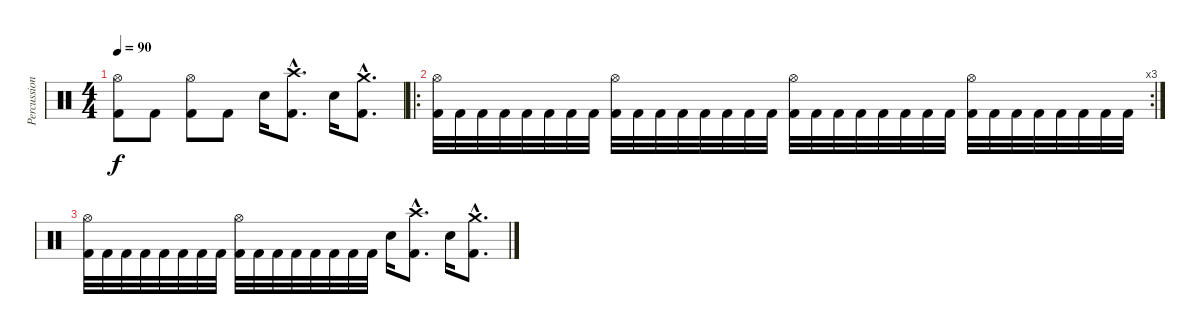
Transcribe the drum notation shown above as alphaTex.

\track ("Percussion" "Percussion") {instrument percussion}
\staff {score}
\articulation defaults
\ts (4 4)
\tempo 90
\clef neutral
\ks c
("Hi-Hat (open)" "Kick (hit) 2").8{dy f} "Kick (hit) 2".8 ("Hi-Hat (open)" "Kick (hit) 2").8 "Kick (hit) 2".8 "Electric Snare (hit)".16 ("Crash high (hit)"{hac} "Kick (hit) 2"{hac}).8{d} "Electric Snare (hit)".16 ("Crash medium (hit)"{hac} "Kick (hit) 2"{hac}).8{d} |
\ro
\rc 3
("Hi-Hat (open)" "Kick (hit) 2").32 "Kick (hit) 2".32 "Kick (hit) 2".32 "Kick (hit) 2".32 "Kick (hit) 2".32 "Kick (hit) 2".32 "Kick (hit) 2".32 "Kick (hit) 2".32 ("Hi-Hat (open)" "Kick (hit) 2").32 "Kick (hit) 2".32 "Kick (hit) 2".32 "Kick (hit) 2".32 "Kick (hit) 2".32 "Kick (hit) 2".32 "Kick (hit) 2".32 "Kick (hit) 2".32 ("Hi-Hat (open)" "Kick (hit) 2").32 "Kick (hit) 2".32 "Kick (hit) 2".32 "Kick (hit) 2".32 "Kick (hit) 2".32 "Kick (hit) 2".32 "Kick (hit) 2".32 "Kick (hit) 2".32 ("Hi-Hat (open)" "Kick (hit) 2").32 "Kick (hit) 2".32 "Kick (hit) 2".32 "Kick (hit) 2".32 "Kick (hit) 2".32 "Kick (hit) 2".32 "Kick (hit) 2".32 "Kick (hit) 2".32 |
("Hi-Hat (open)" "Kick (hit) 2").32 "Kick (hit) 2".32 "Kick (hit) 2".32 "Kick (hit) 2".32 "Kick (hit) 2".32 "Kick (hit) 2".32 "Kick (hit) 2".32 "Kick (hit) 2".32 ("Hi-Hat (open)" "Kick (hit) 2").32 "Kick (hit) 2".32 "Kick (hit) 2".32 "Kick (hit) 2".32 "Kick (hit) 2".32 "Kick (hit) 2".32 "Kick (hit) 2".32 "Kick (hit) 2".32 "Electric Snare (hit)".16 ("Crash high (hit)"{hac} "Kick (hit) 2"{hac}).8{d} "Electric Snare (hit)".16 ("Crash medium (hit)"{hac} "Kick (hit) 2"{hac}).8{d}
